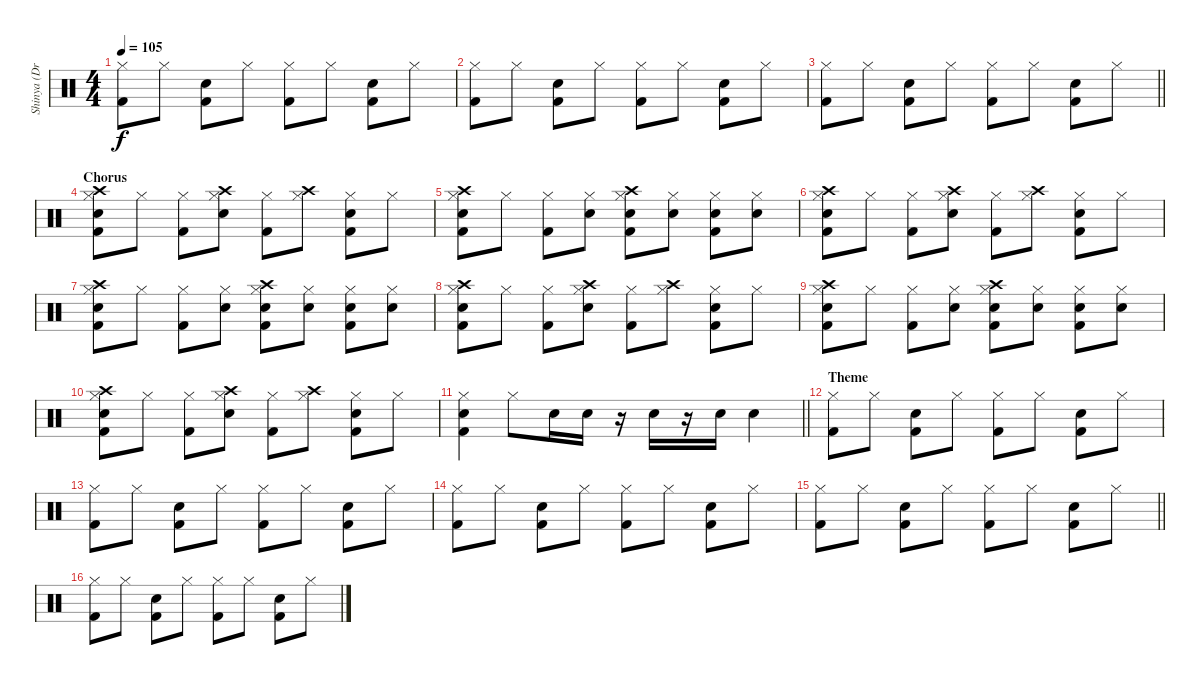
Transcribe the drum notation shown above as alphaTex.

\track ("Shinya (Drums)" "Shinya (Dr") {instrument percussion}
\staff {score}
\articulation defaults
\ts (4 4)
\tempo 105
\clef neutral
\ks c
("Hi-Hat (closed)" "Kick (hit) 2").8{dy f} "Hi-Hat (closed)".8 ("Snare (hit) 2" "Kick (hit) 2").8 "Hi-Hat (closed)".8 ("Hi-Hat (closed)" "Kick (hit) 2").8 "Hi-Hat (closed)".8 ("Snare (hit) 2" "Kick (hit) 2").8 "Hi-Hat (closed)".8 |
("Hi-Hat (closed)" "Kick (hit) 2").8 "Hi-Hat (closed)".8 ("Snare (hit) 2" "Kick (hit) 2").8 "Hi-Hat (closed)".8 ("Hi-Hat (closed)" "Kick (hit) 2").8 "Hi-Hat (closed)".8 ("Snare (hit) 2" "Kick (hit) 2").8 "Hi-Hat (closed)".8 |
\barLineRight lightlight
("Hi-Hat (closed)" "Kick (hit) 2").8 "Hi-Hat (closed)".8 ("Snare (hit) 2" "Kick (hit) 2").8 "Hi-Hat (closed)".8 ("Hi-Hat (closed)" "Kick (hit) 2").8 "Hi-Hat (closed)".8 ("Snare (hit) 2" "Kick (hit) 2").8 "Hi-Hat (closed)".8 |
\section ("" "Chorus")
("Crash high (hit)" "Hi-Hat (closed)" "Snare (hit) 2" "Kick (hit) 2").8 "Hi-Hat (closed)".8 ("Hi-Hat (closed)" "Kick (hit) 2").8 ("Crash high (hit)" "Hi-Hat (closed)" "Snare (hit) 2").8 ("Hi-Hat (closed)" "Kick (hit) 2").8 ("Crash high (hit)" "Hi-Hat (closed)").8 ("Hi-Hat (closed)" "Snare (hit) 2" "Kick (hit) 2").8 "Hi-Hat (closed)".8 |
("Crash high (hit)" "Hi-Hat (closed)" "Snare (hit) 2" "Kick (hit) 2").8 "Hi-Hat (closed)".8 ("Hi-Hat (closed)" "Kick (hit) 2").8 ("Hi-Hat (closed)" "Snare (hit) 2").8 ("Crash high (hit)" "Hi-Hat (closed)" "Snare (hit) 2" "Kick (hit) 2").8 ("Hi-Hat (closed)" "Snare (hit) 2").8 ("Hi-Hat (closed)" "Snare (hit) 2" "Kick (hit) 2").8 ("Hi-Hat (closed)" "Snare (hit) 2").8 |
("Crash high (hit)" "Hi-Hat (closed)" "Snare (hit) 2" "Kick (hit) 2").8 "Hi-Hat (closed)".8 ("Hi-Hat (closed)" "Kick (hit) 2").8 ("Crash high (hit)" "Hi-Hat (closed)" "Snare (hit) 2").8 ("Hi-Hat (closed)" "Kick (hit) 2").8 ("Crash high (hit)" "Hi-Hat (closed)").8 ("Hi-Hat (closed)" "Snare (hit) 2" "Kick (hit) 2").8 "Hi-Hat (closed)".8 |
("Crash high (hit)" "Hi-Hat (closed)" "Snare (hit) 2" "Kick (hit) 2").8 "Hi-Hat (closed)".8 ("Hi-Hat (closed)" "Kick (hit) 2").8 ("Hi-Hat (closed)" "Snare (hit) 2").8 ("Crash high (hit)" "Hi-Hat (closed)" "Snare (hit) 2" "Kick (hit) 2").8 ("Hi-Hat (closed)" "Snare (hit) 2").8 ("Hi-Hat (closed)" "Snare (hit) 2" "Kick (hit) 2").8 ("Hi-Hat (closed)" "Snare (hit) 2").8 |
("Crash high (hit)" "Hi-Hat (closed)" "Snare (hit) 2" "Kick (hit) 2").8 "Hi-Hat (closed)".8 ("Hi-Hat (closed)" "Kick (hit) 2").8 ("Crash high (hit)" "Hi-Hat (closed)" "Snare (hit) 2").8 ("Hi-Hat (closed)" "Kick (hit) 2").8 ("Crash high (hit)" "Hi-Hat (closed)").8 ("Hi-Hat (closed)" "Snare (hit) 2" "Kick (hit) 2").8 "Hi-Hat (closed)".8 |
("Crash high (hit)" "Hi-Hat (closed)" "Snare (hit) 2" "Kick (hit) 2").8 "Hi-Hat (closed)".8 ("Hi-Hat (closed)" "Kick (hit) 2").8 ("Hi-Hat (closed)" "Snare (hit) 2").8 ("Crash high (hit)" "Hi-Hat (closed)" "Snare (hit) 2" "Kick (hit) 2").8 ("Hi-Hat (closed)" "Snare (hit) 2").8 ("Hi-Hat (closed)" "Snare (hit) 2" "Kick (hit) 2").8 ("Hi-Hat (closed)" "Snare (hit) 2").8 |
("Crash high (hit)" "Hi-Hat (closed)" "Snare (hit) 2" "Kick (hit) 2").8 "Hi-Hat (closed)".8 ("Hi-Hat (closed)" "Kick (hit) 2").8 ("Crash high (hit)" "Hi-Hat (closed)" "Snare (hit) 2").8 ("Hi-Hat (closed)" "Kick (hit) 2").8 ("Crash high (hit)" "Hi-Hat (closed)").8 ("Hi-Hat (closed)" "Snare (hit) 2" "Kick (hit) 2").8 "Hi-Hat (closed)".8 |
\barLineRight lightlight
("Hi-Hat (closed)" "Snare (hit) 2" "Kick (hit) 2").4 "Hi-Hat (closed)".8 "Snare (hit) 2".16 "Snare (hit) 2".16 r.16 "Snare (hit) 2".16 r.16 "Snare (hit) 2".16 "Snare (hit) 2".4 |
\section ("" "Theme")
("Hi-Hat (closed)" "Kick (hit) 2").8 "Hi-Hat (closed)".8 ("Snare (hit) 2" "Kick (hit) 2").8 "Hi-Hat (closed)".8 ("Hi-Hat (closed)" "Kick (hit) 2").8 "Hi-Hat (closed)".8 ("Snare (hit) 2" "Kick (hit) 2").8 "Hi-Hat (closed)".8 |
("Hi-Hat (closed)" "Kick (hit) 2").8 "Hi-Hat (closed)".8 ("Snare (hit) 2" "Kick (hit) 2").8 "Hi-Hat (closed)".8 ("Hi-Hat (closed)" "Kick (hit) 2").8 "Hi-Hat (closed)".8 ("Snare (hit) 2" "Kick (hit) 2").8 "Hi-Hat (closed)".8 |
("Hi-Hat (closed)" "Kick (hit) 2").8 "Hi-Hat (closed)".8 ("Snare (hit) 2" "Kick (hit) 2").8 "Hi-Hat (closed)".8 ("Hi-Hat (closed)" "Kick (hit) 2").8 "Hi-Hat (closed)".8 ("Snare (hit) 2" "Kick (hit) 2").8 "Hi-Hat (closed)".8 |
\barLineRight lightlight
("Hi-Hat (closed)" "Kick (hit) 2").8 "Hi-Hat (closed)".8 ("Snare (hit) 2" "Kick (hit) 2").8 "Hi-Hat (closed)".8 ("Hi-Hat (closed)" "Kick (hit) 2").8 "Hi-Hat (closed)".8 ("Snare (hit) 2" "Kick (hit) 2").8 "Hi-Hat (closed)".8 |
("Hi-Hat (closed)" "Kick (hit) 2").8 "Hi-Hat (closed)".8 ("Snare (hit) 2" "Kick (hit) 2").8 "Hi-Hat (closed)".8 ("Hi-Hat (closed)" "Kick (hit) 2").8 "Hi-Hat (closed)".8 ("Snare (hit) 2" "Kick (hit) 2").8 "Hi-Hat (closed)".8
